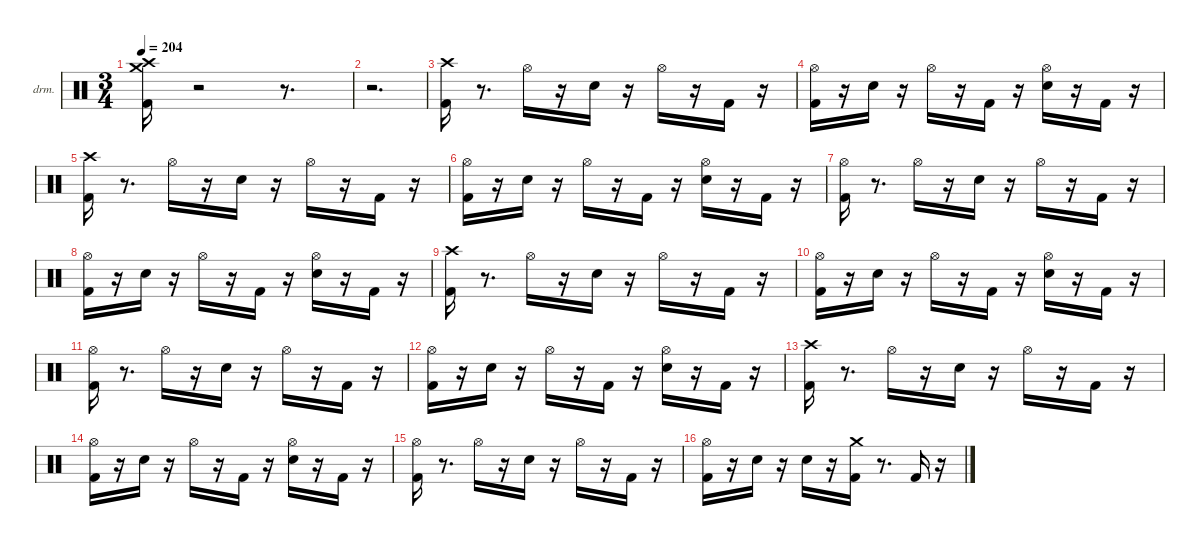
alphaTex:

\hideDynamics
\bracketExtendMode nobrackets
\firstSystemTrackNameOrientation horizontal
\otherSystemsTrackNameOrientation horizontal
\track ("drums" "drm.") {instrument percussion}
\staff {score}
\articulation defaults
\ts (3 4)
\tempo 204
\clef neutral
\ks aminor
("Kick (hit) 2" "Crash high (hit)"{acc #} "Crash medium (hit)").16{dy fff beam Down} r.2{beam Down} r.8{d beam Down} |
r.2{d beam Down} |
("Kick (hit) 2" "Crash high (hit)"{acc #}).16{beam Down} r.8{d beam Down} "Hi-Hat (open)"{acc #}.16{dy mf beam Down} r.16{beam Down} "Snare (hit) 2".16{dy ff beam Down} r.16{beam Down} "Hi-Hat (open)"{acc #}.16{dy f beam Down} r.16{beam Down} "Kick (hit) 2".16{dy mf beam Up} r.16{beam Up} |
("Kick (hit) 2" "Hi-Hat (open)"{acc #}).16{dy fff beam Down} r.16{beam Down} "Snare (hit) 2".16{dy ff beam Down} r.16{beam Down} "Hi-Hat (open)"{acc #}.16{dy mf beam Down} r.16{beam Down} "Kick (hit) 2".16{dy ff beam Up} r.16{beam Up} ("Snare (hit) 2" "Hi-Hat (open)"{acc #}).16{dy f beam Down} r.16{beam Down} "Kick (hit) 2".16{dy mp beam Up} r.16{beam Up} |
("Kick (hit) 2" "Crash high (hit)"{acc #}).16{dy fff beam Down} r.8{d beam Down} "Hi-Hat (open)"{acc #}.16{dy mf beam Down} r.16{beam Down} "Snare (hit) 2".16{dy ff beam Down} r.16{beam Down} "Hi-Hat (open)"{acc #}.16{dy f beam Down} r.16{beam Down} "Kick (hit) 2".16{dy mf beam Up} r.16{beam Up} |
("Kick (hit) 2" "Hi-Hat (open)"{acc #}).16{dy fff beam Down} r.16{beam Down} "Snare (hit) 2".16{dy ff beam Down} r.16{beam Down} "Hi-Hat (open)"{acc #}.16{dy mp beam Down} r.16{beam Down} "Kick (hit) 2".16{dy ff beam Up} r.16{beam Up} ("Snare (hit) 2" "Hi-Hat (open)"{acc #}).16{dy f beam Down} r.16{beam Down} "Kick (hit) 2".16{dy mp beam Up} r.16{beam Up} |
("Kick (hit) 2" "Hi-Hat (open)"{acc #}).16{dy fff beam Down} r.8{d beam Down} "Hi-Hat (open)"{acc #}.16{dy mp beam Down} r.16{beam Down} "Snare (hit) 2".16{dy ff beam Down} r.16{beam Down} "Hi-Hat (open)"{acc #}.16{dy f beam Down} r.16{beam Down} "Kick (hit) 2".16{dy mf beam Up} r.16{beam Up} |
("Kick (hit) 2" "Hi-Hat (open)"{acc #}).16{dy fff beam Down} r.16{beam Down} "Snare (hit) 2".16{dy ff beam Down} r.16{beam Down} "Hi-Hat (open)"{acc #}.16{dy mf beam Down} r.16{beam Down} "Kick (hit) 2".16{dy ff beam Up} r.16{beam Up} ("Snare (hit) 2" "Hi-Hat (open)"{acc #}).16{dy f beam Down} r.16{beam Down} "Kick (hit) 2".16{dy mp beam Up} r.16{beam Up} |
("Kick (hit) 2" "Crash high (hit)"{acc #}).16{dy fff beam Down} r.8{d beam Down} "Hi-Hat (open)"{acc #}.16{dy mf beam Down} r.16{beam Down} "Snare (hit) 2".16{dy ff beam Down} r.16{beam Down} "Hi-Hat (open)"{acc #}.16{dy f beam Down} r.16{beam Down} "Kick (hit) 2".16{dy mf beam Up} r.16{beam Up} |
("Kick (hit) 2" "Hi-Hat (open)"{acc #}).16{dy fff beam Down} r.16{beam Down} "Snare (hit) 2".16{dy ff beam Down} r.16{beam Down} "Hi-Hat (open)"{acc #}.16{dy mp beam Down} r.16{beam Down} "Kick (hit) 2".16{dy ff beam Up} r.16{beam Up} ("Snare (hit) 2" "Hi-Hat (open)"{acc #}).16{dy f beam Down} r.16{beam Down} "Kick (hit) 2".16{dy mp beam Up} r.16{beam Up} |
("Kick (hit) 2" "Hi-Hat (open)"{acc #}).16{dy fff beam Down} r.8{d beam Down} "Hi-Hat (open)"{acc #}.16{dy mp beam Down} r.16{beam Down} "Snare (hit) 2".16{dy ff beam Down} r.16{beam Down} "Hi-Hat (open)"{acc #}.16{dy f beam Down} r.16{beam Down} "Kick (hit) 2".16{dy mf beam Up} r.16{beam Up} |
("Kick (hit) 2" "Hi-Hat (open)"{acc #}).16{dy fff beam Down} r.16{beam Down} "Snare (hit) 2".16{dy ff beam Down} r.16{beam Down} "Hi-Hat (open)"{acc #}.16{dy mf beam Down} r.16{beam Down} "Kick (hit) 2".16{dy ff beam Up} r.16{beam Up} ("Snare (hit) 2" "Hi-Hat (open)"{acc #}).16{dy f beam Down} r.16{beam Down} "Kick (hit) 2".16{dy mp beam Up} r.16{beam Up} |
("Kick (hit) 2" "Crash high (hit)"{acc #}).16{dy fff beam Down} r.8{d beam Down} "Hi-Hat (open)"{acc #}.16{dy mf beam Down} r.16{beam Down} "Snare (hit) 2".16{dy ff beam Down} r.16{beam Down} "Hi-Hat (open)"{acc #}.16{dy f beam Down} r.16{beam Down} "Kick (hit) 2".16{dy mf beam Up} r.16{beam Up} |
("Kick (hit) 2" "Hi-Hat (open)"{acc #}).16{dy fff beam Down} r.16{beam Down} "Snare (hit) 2".16{dy ff beam Down} r.16{beam Down} "Hi-Hat (open)"{acc #}.16{dy mp beam Down} r.16{beam Down} "Kick (hit) 2".16{dy ff beam Up} r.16{beam Up} ("Snare (hit) 2" "Hi-Hat (open)"{acc #}).16{dy f beam Down} r.16{beam Down} "Kick (hit) 2".16{dy mp beam Up} r.16{beam Up} |
("Kick (hit) 2" "Hi-Hat (open)"{acc #}).16{dy fff beam Down} r.8{d beam Down} "Hi-Hat (open)"{acc #}.16{dy mp beam Down} r.16{beam Down} "Snare (hit) 2".16{dy ff beam Down} r.16{beam Down} "Hi-Hat (open)"{acc #}.16{dy f beam Down} r.16{beam Down} "Kick (hit) 2".16{dy mf beam Up} r.16{beam Up} |
("Kick (hit) 2" "Hi-Hat (open)"{acc #}).16{dy fff beam Down} r.16{beam Down} "Snare (hit) 2".16{dy ff beam Down} r.16{beam Down} "Snare (hit) 2".16{dy p beam Down} r.16{beam Down} ("Kick (hit) 2" "Crash medium (hit)").16{dy ff beam Down} r.8{d beam Down} "Kick (hit) 2".16{dy mf beam Up} r.16{beam Up}
